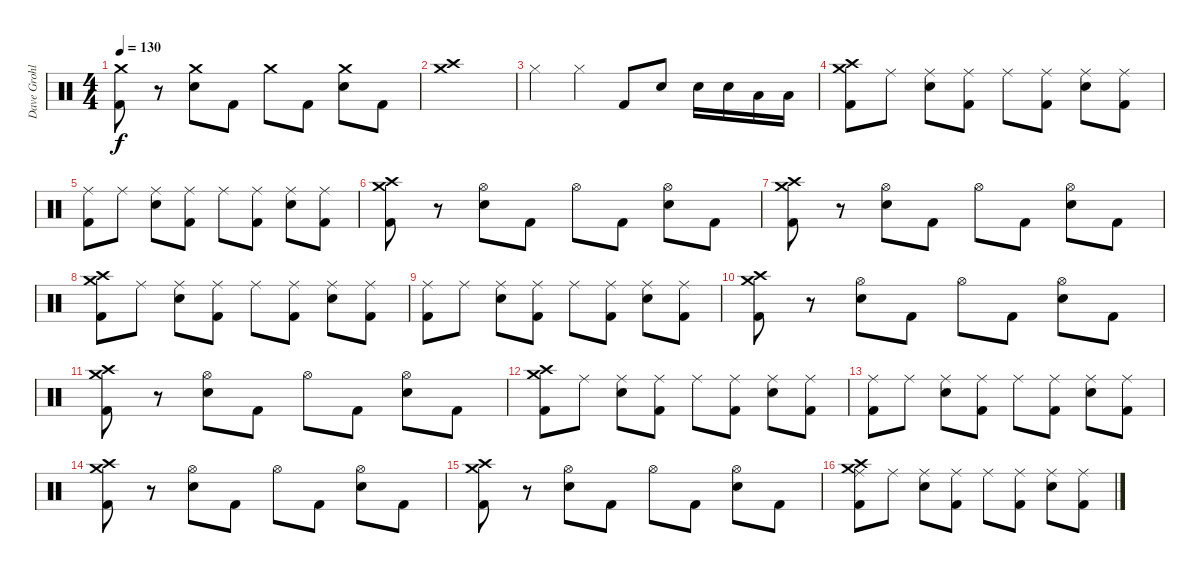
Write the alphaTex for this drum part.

\track ("Dave Grohl" "Dave Grohl") {instrument percussion}
\staff {score}
\articulation defaults
\ts (4 4)
\tempo 130
\clef neutral
\ks c
("Crash medium (hit)" "Kick (hit) 2").8{dy f} r.8 ("Crash medium (hit)" "Snare (hit) 2").8 "Kick (hit) 2".8 "Crash medium (hit)".8 "Kick (hit) 2".8 ("Crash medium (hit)" "Snare (hit) 2").8 "Kick (hit) 2".8 |
("Crash high (hit)" "Crash medium (hit)").1 |
"Hi-Hat (closed)".4 "Hi-Hat (closed)".4 "Kick (hit) 2".8 "Snare (hit) 2".8 "Snare (hit) 2".16 "Snare (hit) 2".16 "Low Tom (hit)".16 "Low Tom (hit)".16 |
("Crash high (hit)" "Crash medium (hit)" "Kick (hit) 2").8 "Ride (middle)".8 ("Ride (middle)" "Snare (hit) 2").8 ("Ride (middle)" "Kick (hit) 2").8 "Ride (middle)".8 ("Ride (middle)" "Kick (hit) 2").8 ("Ride (middle)" "Snare (hit) 2").8 ("Ride (middle)" "Kick (hit) 2").8 |
("Ride (middle)" "Kick (hit) 2").8 "Ride (middle)".8 ("Ride (middle)" "Snare (hit) 2").8 ("Ride (middle)" "Kick (hit) 2").8 "Ride (middle)".8 ("Ride (middle)" "Kick (hit) 2").8 ("Ride (middle)" "Snare (hit) 2").8 ("Ride (middle)" "Kick (hit) 2").8 |
("Crash high (hit)" "Crash medium (hit)" "Kick (hit) 2").8 r.8 ("Hi-Hat (open)" "Snare (hit) 2").8 "Kick (hit) 2".8 "Hi-Hat (open)".8 "Kick (hit) 2".8 ("Hi-Hat (open)" "Snare (hit) 2").8 "Kick (hit) 2".8 |
("Crash high (hit)" "Crash medium (hit)" "Kick (hit) 2").8 r.8 ("Hi-Hat (open)" "Snare (hit) 2").8 "Kick (hit) 2".8 "Hi-Hat (open)".8 "Kick (hit) 2".8 ("Hi-Hat (open)" "Snare (hit) 2").8 "Kick (hit) 2".8 |
("Crash high (hit)" "Crash medium (hit)" "Kick (hit) 2").8 "Ride (middle)".8 ("Ride (middle)" "Snare (hit) 2").8 ("Ride (middle)" "Kick (hit) 2").8 "Ride (middle)".8 ("Ride (middle)" "Kick (hit) 2").8 ("Ride (middle)" "Snare (hit) 2").8 ("Ride (middle)" "Kick (hit) 2").8 |
("Ride (middle)" "Kick (hit) 2").8 "Ride (middle)".8 ("Ride (middle)" "Snare (hit) 2").8 ("Ride (middle)" "Kick (hit) 2").8 "Ride (middle)".8 ("Ride (middle)" "Kick (hit) 2").8 ("Ride (middle)" "Snare (hit) 2").8 ("Ride (middle)" "Kick (hit) 2").8 |
("Crash high (hit)" "Crash medium (hit)" "Kick (hit) 2").8 r.8 ("Hi-Hat (open)" "Snare (hit) 2").8 "Kick (hit) 2".8 "Hi-Hat (open)".8 "Kick (hit) 2".8 ("Hi-Hat (open)" "Snare (hit) 2").8 "Kick (hit) 2".8 |
("Crash high (hit)" "Crash medium (hit)" "Kick (hit) 2").8 r.8 ("Hi-Hat (open)" "Snare (hit) 2").8 "Kick (hit) 2".8 "Hi-Hat (open)".8 "Kick (hit) 2".8 ("Hi-Hat (open)" "Snare (hit) 2").8 "Kick (hit) 2".8 |
("Crash high (hit)" "Crash medium (hit)" "Kick (hit) 2").8 "Ride (middle)".8 ("Ride (middle)" "Snare (hit) 2").8 ("Ride (middle)" "Kick (hit) 2").8 "Ride (middle)".8 ("Ride (middle)" "Kick (hit) 2").8 ("Ride (middle)" "Snare (hit) 2").8 ("Ride (middle)" "Kick (hit) 2").8 |
("Ride (middle)" "Kick (hit) 2").8 "Ride (middle)".8 ("Ride (middle)" "Snare (hit) 2").8 ("Ride (middle)" "Kick (hit) 2").8 "Ride (middle)".8 ("Ride (middle)" "Kick (hit) 2").8 ("Ride (middle)" "Snare (hit) 2").8 ("Ride (middle)" "Kick (hit) 2").8 |
("Crash high (hit)" "Crash medium (hit)" "Kick (hit) 2").8 r.8 ("Hi-Hat (open)" "Snare (hit) 2").8 "Kick (hit) 2".8 "Hi-Hat (open)".8 "Kick (hit) 2".8 ("Hi-Hat (open)" "Snare (hit) 2").8 "Kick (hit) 2".8 |
("Crash high (hit)" "Crash medium (hit)" "Kick (hit) 2").8 r.8 ("Hi-Hat (open)" "Snare (hit) 2").8 "Kick (hit) 2".8 "Hi-Hat (open)".8 "Kick (hit) 2".8 ("Hi-Hat (open)" "Snare (hit) 2").8 "Kick (hit) 2".8 |
("Crash high (hit)" "Crash medium (hit)" "Ride (middle)" "Kick (hit) 2").8 "Ride (middle)".8 ("Ride (middle)" "Snare (hit) 2").8 ("Ride (middle)" "Kick (hit) 2").8 "Ride (middle)".8 ("Ride (middle)" "Kick (hit) 2").8 ("Ride (middle)" "Snare (hit) 2").8 ("Ride (middle)" "Kick (hit) 2").8
